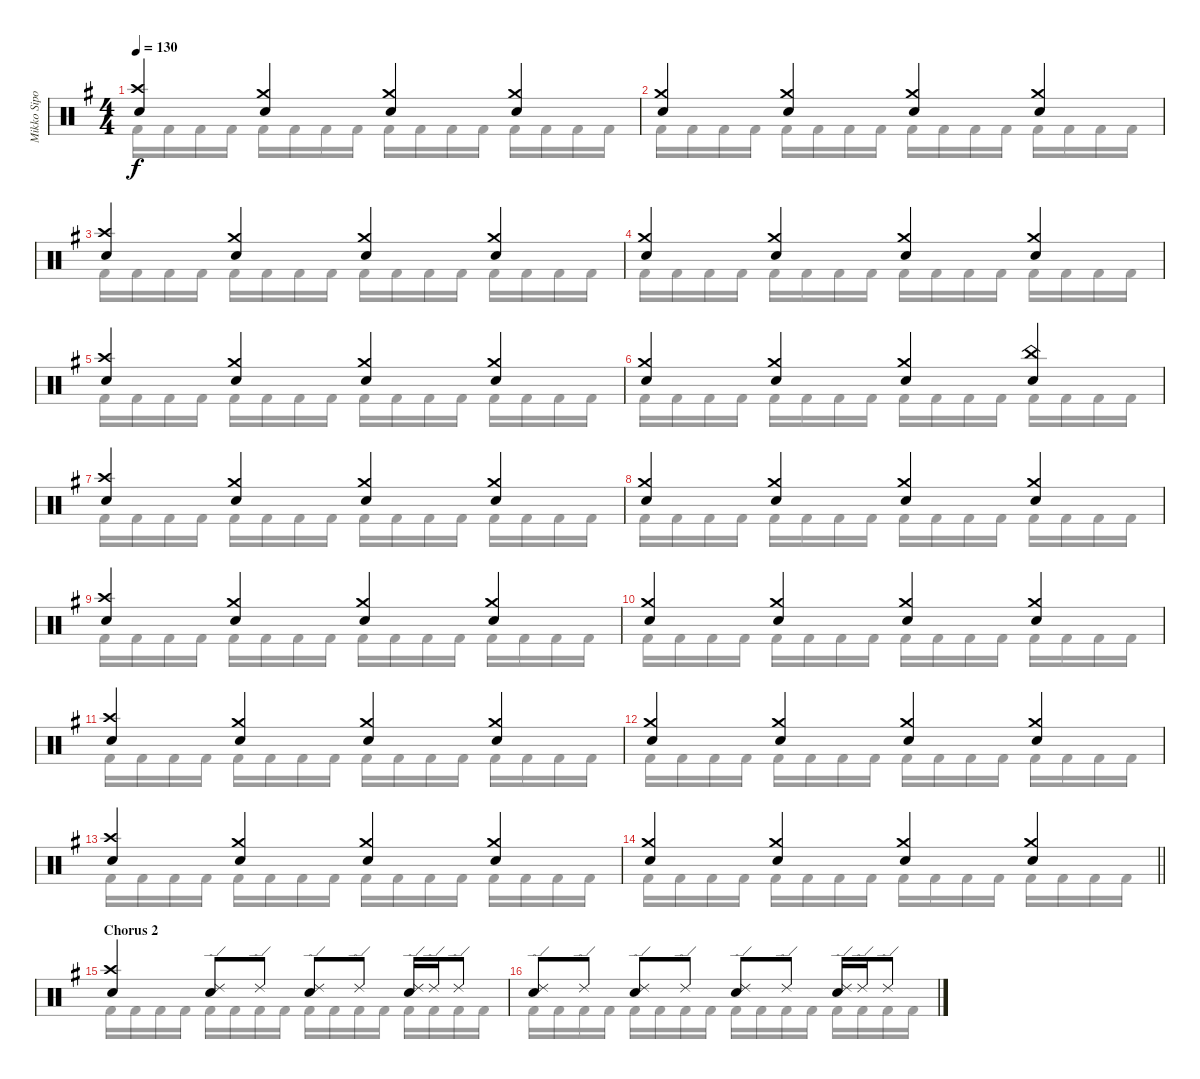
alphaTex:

\track ("Mikko Sipola (drums)" "Mikko Sipo") {instrument percussion}
\staff {score}
\articulation defaults
\voice
\ts (4 4)
\tempo 130
\clef neutral
\ks eminor
("Crash high (hit)" "Electric Snare (hit)").4{dy f} ("Crash medium (hit)" "Electric Snare (hit)").4 ("Crash medium (hit)" "Electric Snare (hit)").4 ("Crash medium (hit)" "Electric Snare (hit)").4 |
("Crash medium (hit)" "Electric Snare (hit)").4 ("Crash medium (hit)" "Electric Snare (hit)").4 ("Crash medium (hit)" "Electric Snare (hit)").4 ("Crash medium (hit)" "Electric Snare (hit)").4 |
("Crash high (hit)" "Electric Snare (hit)").4 ("Crash medium (hit)" "Electric Snare (hit)").4 ("Crash medium (hit)" "Electric Snare (hit)").4 ("Crash medium (hit)" "Electric Snare (hit)").4 |
("Crash medium (hit)" "Electric Snare (hit)").4 ("Crash medium (hit)" "Electric Snare (hit)").4 ("Crash medium (hit)" "Electric Snare (hit)").4 ("Crash medium (hit)" "Electric Snare (hit)").4 |
("Crash high (hit)" "Electric Snare (hit)").4 ("Crash medium (hit)" "Electric Snare (hit)").4 ("Crash medium (hit)" "Electric Snare (hit)").4 ("Crash medium (hit)" "Electric Snare (hit)").4 |
("Crash medium (hit)" "Electric Snare (hit)").4 ("Crash medium (hit)" "Electric Snare (hit)").4 ("Crash medium (hit)" "Electric Snare (hit)").4 ("China (hit)" "Electric Snare (hit)").4 |
("Crash high (hit)" "Electric Snare (hit)").4 ("Crash medium (hit)" "Electric Snare (hit)").4 ("Crash medium (hit)" "Electric Snare (hit)").4 ("Crash medium (hit)" "Electric Snare (hit)").4 |
("Crash medium (hit)" "Electric Snare (hit)").4 ("Crash medium (hit)" "Electric Snare (hit)").4 ("Crash medium (hit)" "Electric Snare (hit)").4 ("Crash medium (hit)" "Electric Snare (hit)").4 |
("Crash high (hit)" "Electric Snare (hit)").4 ("Crash medium (hit)" "Electric Snare (hit)").4 ("Crash medium (hit)" "Electric Snare (hit)").4 ("Crash medium (hit)" "Electric Snare (hit)").4 |
("Crash medium (hit)" "Electric Snare (hit)").4 ("Crash medium (hit)" "Electric Snare (hit)").4 ("Crash medium (hit)" "Electric Snare (hit)").4 ("Crash medium (hit)" "Electric Snare (hit)").4 |
("Crash high (hit)" "Electric Snare (hit)").4 ("Crash medium (hit)" "Electric Snare (hit)").4 ("Crash medium (hit)" "Electric Snare (hit)").4 ("Crash medium (hit)" "Electric Snare (hit)").4 |
("Crash medium (hit)" "Electric Snare (hit)").4 ("Crash medium (hit)" "Electric Snare (hit)").4 ("Crash medium (hit)" "Electric Snare (hit)").4 ("Crash medium (hit)" "Electric Snare (hit)").4 |
("Crash high (hit)" "Electric Snare (hit)").4 ("Crash medium (hit)" "Electric Snare (hit)").4 ("Crash medium (hit)" "Electric Snare (hit)").4 ("Crash medium (hit)" "Electric Snare (hit)").4 |
\barLineRight lightlight
("Crash medium (hit)" "Electric Snare (hit)").4 ("Crash medium (hit)" "Electric Snare (hit)").4 ("Crash medium (hit)" "Electric Snare (hit)").4 ("Crash medium (hit)" "Electric Snare (hit)").4 |
\section ("" "Chorus 2")
("Crash high (hit)" "Electric Snare (hit)").4 ("Ride (edge) 2" "Electric Snare (hit)").8 "Ride (edge) 2".8 ("Ride (edge) 2" "Electric Snare (hit)").8 "Ride (edge) 2".8 ("Ride (edge) 2" "Electric Snare (hit)").16 "Ride (edge) 2".16 "Ride (edge) 2".8 |
("Ride (edge) 2" "Electric Snare (hit)").8 "Ride (edge) 2".8 ("Ride (edge) 2" "Electric Snare (hit)").8 "Ride (edge) 2".8 ("Ride (edge) 2" "Electric Snare (hit)").8 "Ride (edge) 2".8 ("Ride (edge) 2" "Electric Snare (hit)").16 "Ride (edge) 2".16 "Ride (edge) 2".8
\voice
\clef neutral
\ottava regular
\simile none
\ks eminor "Kick (hit) 2".16{dy f} "Kick (hit) 2".16 "Kick (hit) 2".16 "Kick (hit) 2".16 "Kick (hit) 2".16 "Kick (hit) 2".16 "Kick (hit) 2".16 "Kick (hit) 2".16 "Kick (hit) 2".16 "Kick (hit) 2".16 "Kick (hit) 2".16 "Kick (hit) 2".16 "Kick (hit) 2".16 "Kick (hit) 2".16 "Kick (hit) 2".16 "Kick (hit) 2".16
|
"Kick (hit) 2".16 "Kick (hit) 2".16 "Kick (hit) 2".16 "Kick (hit) 2".16 "Kick (hit) 2".16 "Kick (hit) 2".16 "Kick (hit) 2".16 "Kick (hit) 2".16 "Kick (hit) 2".16 "Kick (hit) 2".16 "Kick (hit) 2".16 "Kick (hit) 2".16 "Kick (hit) 2".16 "Kick (hit) 2".16 "Kick (hit) 2".16 "Kick (hit) 2".16 |
"Kick (hit) 2".16 "Kick (hit) 2".16 "Kick (hit) 2".16 "Kick (hit) 2".16 "Kick (hit) 2".16 "Kick (hit) 2".16 "Kick (hit) 2".16 "Kick (hit) 2".16 "Kick (hit) 2".16 "Kick (hit) 2".16 "Kick (hit) 2".16 "Kick (hit) 2".16 "Kick (hit) 2".16 "Kick (hit) 2".16 "Kick (hit) 2".16 "Kick (hit) 2".16 |
"Kick (hit) 2".16 "Kick (hit) 2".16 "Kick (hit) 2".16 "Kick (hit) 2".16 "Kick (hit) 2".16 "Kick (hit) 2".16 "Kick (hit) 2".16 "Kick (hit) 2".16 "Kick (hit) 2".16 "Kick (hit) 2".16 "Kick (hit) 2".16 "Kick (hit) 2".16 "Kick (hit) 2".16 "Kick (hit) 2".16 "Kick (hit) 2".16 "Kick (hit) 2".16 |
"Kick (hit) 2".16 "Kick (hit) 2".16 "Kick (hit) 2".16 "Kick (hit) 2".16 "Kick (hit) 2".16 "Kick (hit) 2".16 "Kick (hit) 2".16 "Kick (hit) 2".16 "Kick (hit) 2".16 "Kick (hit) 2".16 "Kick (hit) 2".16 "Kick (hit) 2".16 "Kick (hit) 2".16 "Kick (hit) 2".16 "Kick (hit) 2".16 "Kick (hit) 2".16 |
"Kick (hit) 2".16 "Kick (hit) 2".16 "Kick (hit) 2".16 "Kick (hit) 2".16 "Kick (hit) 2".16 "Kick (hit) 2".16 "Kick (hit) 2".16 "Kick (hit) 2".16 "Kick (hit) 2".16 "Kick (hit) 2".16 "Kick (hit) 2".16 "Kick (hit) 2".16 "Kick (hit) 2".16 "Kick (hit) 2".16 "Kick (hit) 2".16 "Kick (hit) 2".16 |
"Kick (hit) 2".16 "Kick (hit) 2".16 "Kick (hit) 2".16 "Kick (hit) 2".16 "Kick (hit) 2".16 "Kick (hit) 2".16 "Kick (hit) 2".16 "Kick (hit) 2".16 "Kick (hit) 2".16 "Kick (hit) 2".16 "Kick (hit) 2".16 "Kick (hit) 2".16 "Kick (hit) 2".16 "Kick (hit) 2".16 "Kick (hit) 2".16 "Kick (hit) 2".16 |
"Kick (hit) 2".16 "Kick (hit) 2".16 "Kick (hit) 2".16 "Kick (hit) 2".16 "Kick (hit) 2".16 "Kick (hit) 2".16 "Kick (hit) 2".16 "Kick (hit) 2".16 "Kick (hit) 2".16 "Kick (hit) 2".16 "Kick (hit) 2".16 "Kick (hit) 2".16 "Kick (hit) 2".16 "Kick (hit) 2".16 "Kick (hit) 2".16 "Kick (hit) 2".16 |
"Kick (hit) 2".16 "Kick (hit) 2".16 "Kick (hit) 2".16 "Kick (hit) 2".16 "Kick (hit) 2".16 "Kick (hit) 2".16 "Kick (hit) 2".16 "Kick (hit) 2".16 "Kick (hit) 2".16 "Kick (hit) 2".16 "Kick (hit) 2".16 "Kick (hit) 2".16 "Kick (hit) 2".16 "Kick (hit) 2".16 "Kick (hit) 2".16 "Kick (hit) 2".16 |
"Kick (hit) 2".16 "Kick (hit) 2".16 "Kick (hit) 2".16 "Kick (hit) 2".16 "Kick (hit) 2".16 "Kick (hit) 2".16 "Kick (hit) 2".16 "Kick (hit) 2".16 "Kick (hit) 2".16 "Kick (hit) 2".16 "Kick (hit) 2".16 "Kick (hit) 2".16 "Kick (hit) 2".16 "Kick (hit) 2".16 "Kick (hit) 2".16 "Kick (hit) 2".16 |
"Kick (hit) 2".16 "Kick (hit) 2".16 "Kick (hit) 2".16 "Kick (hit) 2".16 "Kick (hit) 2".16 "Kick (hit) 2".16 "Kick (hit) 2".16 "Kick (hit) 2".16 "Kick (hit) 2".16 "Kick (hit) 2".16 "Kick (hit) 2".16 "Kick (hit) 2".16 "Kick (hit) 2".16 "Kick (hit) 2".16 "Kick (hit) 2".16 "Kick (hit) 2".16 |
"Kick (hit) 2".16 "Kick (hit) 2".16 "Kick (hit) 2".16 "Kick (hit) 2".16 "Kick (hit) 2".16 "Kick (hit) 2".16 "Kick (hit) 2".16 "Kick (hit) 2".16 "Kick (hit) 2".16 "Kick (hit) 2".16 "Kick (hit) 2".16 "Kick (hit) 2".16 "Kick (hit) 2".16 "Kick (hit) 2".16 "Kick (hit) 2".16 "Kick (hit) 2".16 |
"Kick (hit) 2".16 "Kick (hit) 2".16 "Kick (hit) 2".16 "Kick (hit) 2".16 "Kick (hit) 2".16 "Kick (hit) 2".16 "Kick (hit) 2".16 "Kick (hit) 2".16 "Kick (hit) 2".16 "Kick (hit) 2".16 "Kick (hit) 2".16 "Kick (hit) 2".16 "Kick (hit) 2".16 "Kick (hit) 2".16 "Kick (hit) 2".16 "Kick (hit) 2".16 |
\barLineRight lightlight "Kick (hit) 2".16 "Kick (hit) 2".16 "Kick (hit) 2".16 "Kick (hit) 2".16 "Kick (hit) 2".16 "Kick (hit) 2".16 "Kick (hit) 2".16 "Kick (hit) 2".16 "Kick (hit) 2".16 "Kick (hit) 2".16 "Kick (hit) 2".16 "Kick (hit) 2".16 "Kick (hit) 2".16 "Kick (hit) 2".16 "Kick (hit) 2".16 "Kick (hit) 2".16
|
"Kick (hit) 2".16 "Kick (hit) 2".16 "Kick (hit) 2".16 "Kick (hit) 2".16 "Kick (hit) 2".16 "Kick (hit) 2".16 "Kick (hit) 2".16 "Kick (hit) 2".16 "Kick (hit) 2".16 "Kick (hit) 2".16 "Kick (hit) 2".16 "Kick (hit) 2".16 "Kick (hit) 2".16 "Kick (hit) 2".16 "Kick (hit) 2".16 "Kick (hit) 2".16 |
"Kick (hit) 2".16 "Kick (hit) 2".16 "Kick (hit) 2".16 "Kick (hit) 2".16 "Kick (hit) 2".16 "Kick (hit) 2".16 "Kick (hit) 2".16 "Kick (hit) 2".16 "Kick (hit) 2".16 "Kick (hit) 2".16 "Kick (hit) 2".16 "Kick (hit) 2".16 "Kick (hit) 2".16 "Kick (hit) 2".16 "Kick (hit) 2".16 "Kick (hit) 2".16
